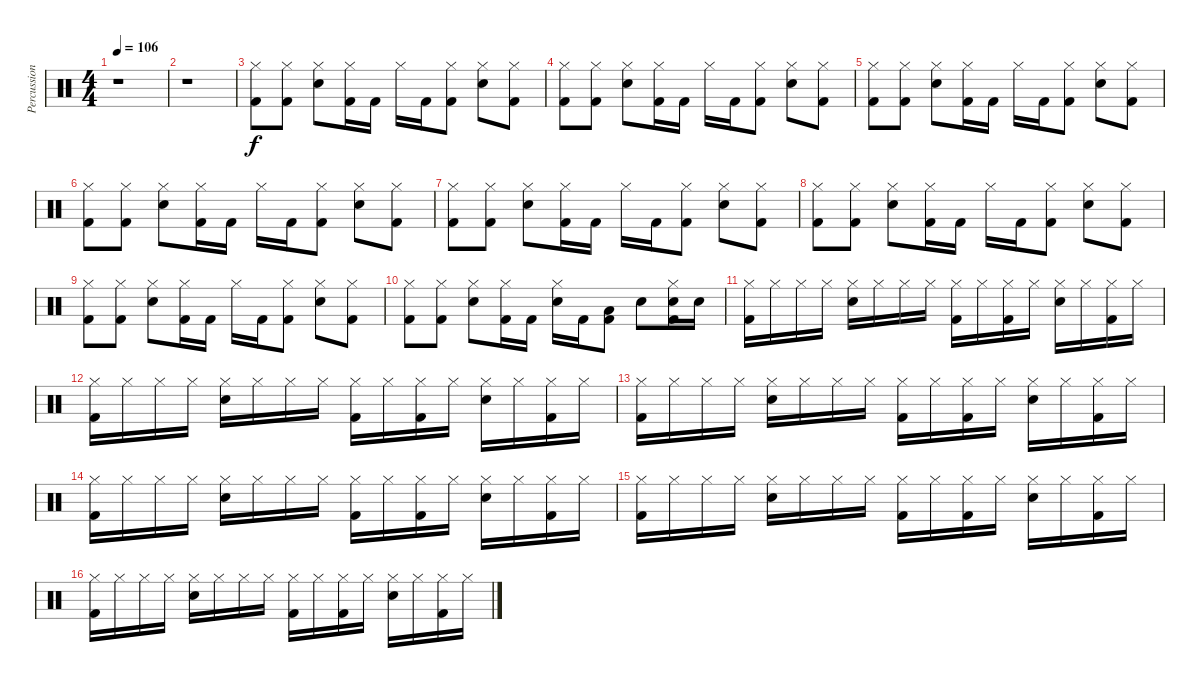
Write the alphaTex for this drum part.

\track ("Percussion" "Percussion") {instrument percussion}
\staff {score}
\articulation defaults
\ts (4 4)
\tempo 106
\clef neutral
\ks c
r.1{dy f} |
r.1 |
("Hi-Hat (closed)" "Kick (hit) 2").8 ("Hi-Hat (closed)" "Kick (hit) 2").8 ("Hi-Hat (closed)" "Snare (hit) 2").8 ("Hi-Hat (closed)" "Kick (hit) 2").16 "Kick (hit) 2".16 "Hi-Hat (closed)".16 "Kick (hit) 2".16 ("Hi-Hat (closed)" "Kick (hit) 2").8 ("Hi-Hat (closed)" "Snare (hit) 2").8 ("Hi-Hat (closed)" "Kick (hit) 2").8 |
("Hi-Hat (closed)" "Kick (hit) 2").8 ("Hi-Hat (closed)" "Kick (hit) 2").8 ("Hi-Hat (closed)" "Snare (hit) 2").8 ("Hi-Hat (closed)" "Kick (hit) 2").16 "Kick (hit) 2".16 "Hi-Hat (closed)".16 "Kick (hit) 2".16 ("Hi-Hat (closed)" "Kick (hit) 2").8 ("Hi-Hat (closed)" "Snare (hit) 2").8 ("Hi-Hat (closed)" "Kick (hit) 2").8 |
("Hi-Hat (closed)" "Kick (hit) 2").8 ("Hi-Hat (closed)" "Kick (hit) 2").8 ("Hi-Hat (closed)" "Snare (hit) 2").8 ("Hi-Hat (closed)" "Kick (hit) 2").16 "Kick (hit) 2".16 "Hi-Hat (closed)".16 "Kick (hit) 2".16 ("Hi-Hat (closed)" "Kick (hit) 2").8 ("Hi-Hat (closed)" "Snare (hit) 2").8 ("Hi-Hat (closed)" "Kick (hit) 2").8 |
("Hi-Hat (closed)" "Kick (hit) 2").8 ("Hi-Hat (closed)" "Kick (hit) 2").8 ("Hi-Hat (closed)" "Snare (hit) 2").8 ("Hi-Hat (closed)" "Kick (hit) 2").16 "Kick (hit) 2".16 "Hi-Hat (closed)".16 "Kick (hit) 2".16 ("Hi-Hat (closed)" "Kick (hit) 2").8 ("Hi-Hat (closed)" "Snare (hit) 2").8 ("Hi-Hat (closed)" "Kick (hit) 2").8 |
("Hi-Hat (closed)" "Kick (hit) 2").8 ("Hi-Hat (closed)" "Kick (hit) 2").8 ("Hi-Hat (closed)" "Snare (hit) 2").8 ("Hi-Hat (closed)" "Kick (hit) 2").16 "Kick (hit) 2".16 "Hi-Hat (closed)".16 "Kick (hit) 2".16 ("Hi-Hat (closed)" "Kick (hit) 2").8 ("Hi-Hat (closed)" "Snare (hit) 2").8 ("Hi-Hat (closed)" "Kick (hit) 2").8 |
("Hi-Hat (closed)" "Kick (hit) 2").8 ("Hi-Hat (closed)" "Kick (hit) 2").8 ("Hi-Hat (closed)" "Snare (hit) 2").8 ("Hi-Hat (closed)" "Kick (hit) 2").16 "Kick (hit) 2".16 "Hi-Hat (closed)".16 "Kick (hit) 2".16 ("Hi-Hat (closed)" "Kick (hit) 2").8 ("Hi-Hat (closed)" "Snare (hit) 2").8 ("Hi-Hat (closed)" "Kick (hit) 2").8 |
("Hi-Hat (closed)" "Kick (hit) 2").8 ("Hi-Hat (closed)" "Kick (hit) 2").8 ("Hi-Hat (closed)" "Snare (hit) 2").8 ("Hi-Hat (closed)" "Kick (hit) 2").16 "Kick (hit) 2".16 "Hi-Hat (closed)".16 "Kick (hit) 2".16 ("Hi-Hat (closed)" "Kick (hit) 2").8 ("Hi-Hat (closed)" "Snare (hit) 2").8 ("Hi-Hat (closed)" "Kick (hit) 2").8 |
("Hi-Hat (closed)" "Kick (hit) 2").8 ("Hi-Hat (closed)" "Kick (hit) 2").8 ("Hi-Hat (closed)" "Snare (hit) 2").8 ("Hi-Hat (closed)" "Kick (hit) 2").16 "Kick (hit) 2".16 ("Hi-Hat (closed)" "Snare (hit) 2").16 "Kick (hit) 2".16 ("Low Tom (hit)" "Kick (hit) 2").8 "Snare (hit) 2".8 ("Hi-Hat (closed)" "Snare (hit) 2" "Kick (hit) 2").16 "Snare (hit) 2".16 |
("Hi-Hat (closed)" "Kick (hit) 2").16 "Hi-Hat (closed)".16 "Hi-Hat (closed)".16 "Hi-Hat (closed)".16 ("Hi-Hat (closed)" "Snare (hit) 2").16 "Hi-Hat (closed)".16 "Hi-Hat (closed)".16 "Hi-Hat (closed)".16 ("Hi-Hat (closed)" "Kick (hit) 2").16 "Hi-Hat (closed)".16 ("Hi-Hat (closed)" "Kick (hit) 2").16 "Hi-Hat (closed)".16 ("Hi-Hat (closed)" "Snare (hit) 2").16 "Hi-Hat (closed)".16 ("Hi-Hat (closed)" "Kick (hit) 2").16 "Hi-Hat (closed)".16 |
("Hi-Hat (closed)" "Kick (hit) 2").16 "Hi-Hat (closed)".16 "Hi-Hat (closed)".16 "Hi-Hat (closed)".16 ("Hi-Hat (closed)" "Snare (hit) 2").16 "Hi-Hat (closed)".16 "Hi-Hat (closed)".16 "Hi-Hat (closed)".16 ("Hi-Hat (closed)" "Kick (hit) 2").16 "Hi-Hat (closed)".16 ("Hi-Hat (closed)" "Kick (hit) 2").16 "Hi-Hat (closed)".16 ("Hi-Hat (closed)" "Snare (hit) 2").16 "Hi-Hat (closed)".16 ("Hi-Hat (closed)" "Kick (hit) 2").16 "Hi-Hat (closed)".16 |
("Hi-Hat (closed)" "Kick (hit) 2").16 "Hi-Hat (closed)".16 "Hi-Hat (closed)".16 "Hi-Hat (closed)".16 ("Hi-Hat (closed)" "Snare (hit) 2").16 "Hi-Hat (closed)".16 "Hi-Hat (closed)".16 "Hi-Hat (closed)".16 ("Hi-Hat (closed)" "Kick (hit) 2").16 "Hi-Hat (closed)".16 ("Hi-Hat (closed)" "Kick (hit) 2").16 "Hi-Hat (closed)".16 ("Hi-Hat (closed)" "Snare (hit) 2").16 "Hi-Hat (closed)".16 ("Hi-Hat (closed)" "Kick (hit) 2").16 "Hi-Hat (closed)".16 |
("Hi-Hat (closed)" "Kick (hit) 2").16 "Hi-Hat (closed)".16 "Hi-Hat (closed)".16 "Hi-Hat (closed)".16 ("Hi-Hat (closed)" "Snare (hit) 2").16 "Hi-Hat (closed)".16 "Hi-Hat (closed)".16 "Hi-Hat (closed)".16 ("Hi-Hat (closed)" "Kick (hit) 2").16 "Hi-Hat (closed)".16 ("Hi-Hat (closed)" "Kick (hit) 2").16 "Hi-Hat (closed)".16 ("Hi-Hat (closed)" "Snare (hit) 2").16 "Hi-Hat (closed)".16 ("Hi-Hat (closed)" "Kick (hit) 2").16 "Hi-Hat (closed)".16 |
("Hi-Hat (closed)" "Kick (hit) 2").16 "Hi-Hat (closed)".16 "Hi-Hat (closed)".16 "Hi-Hat (closed)".16 ("Hi-Hat (closed)" "Snare (hit) 2").16 "Hi-Hat (closed)".16 "Hi-Hat (closed)".16 "Hi-Hat (closed)".16 ("Hi-Hat (closed)" "Kick (hit) 2").16 "Hi-Hat (closed)".16 ("Hi-Hat (closed)" "Kick (hit) 2").16 "Hi-Hat (closed)".16 ("Hi-Hat (closed)" "Snare (hit) 2").16 "Hi-Hat (closed)".16 ("Hi-Hat (closed)" "Kick (hit) 2").16 "Hi-Hat (closed)".16 |
("Hi-Hat (closed)" "Kick (hit) 2").16 "Hi-Hat (closed)".16 "Hi-Hat (closed)".16 "Hi-Hat (closed)".16 ("Hi-Hat (closed)" "Snare (hit) 2").16 "Hi-Hat (closed)".16 "Hi-Hat (closed)".16 "Hi-Hat (closed)".16 ("Hi-Hat (closed)" "Kick (hit) 2").16 "Hi-Hat (closed)".16 ("Hi-Hat (closed)" "Kick (hit) 2").16 "Hi-Hat (closed)".16 ("Hi-Hat (closed)" "Snare (hit) 2").16 "Hi-Hat (closed)".16 ("Hi-Hat (closed)" "Kick (hit) 2").16 "Hi-Hat (closed)".16
